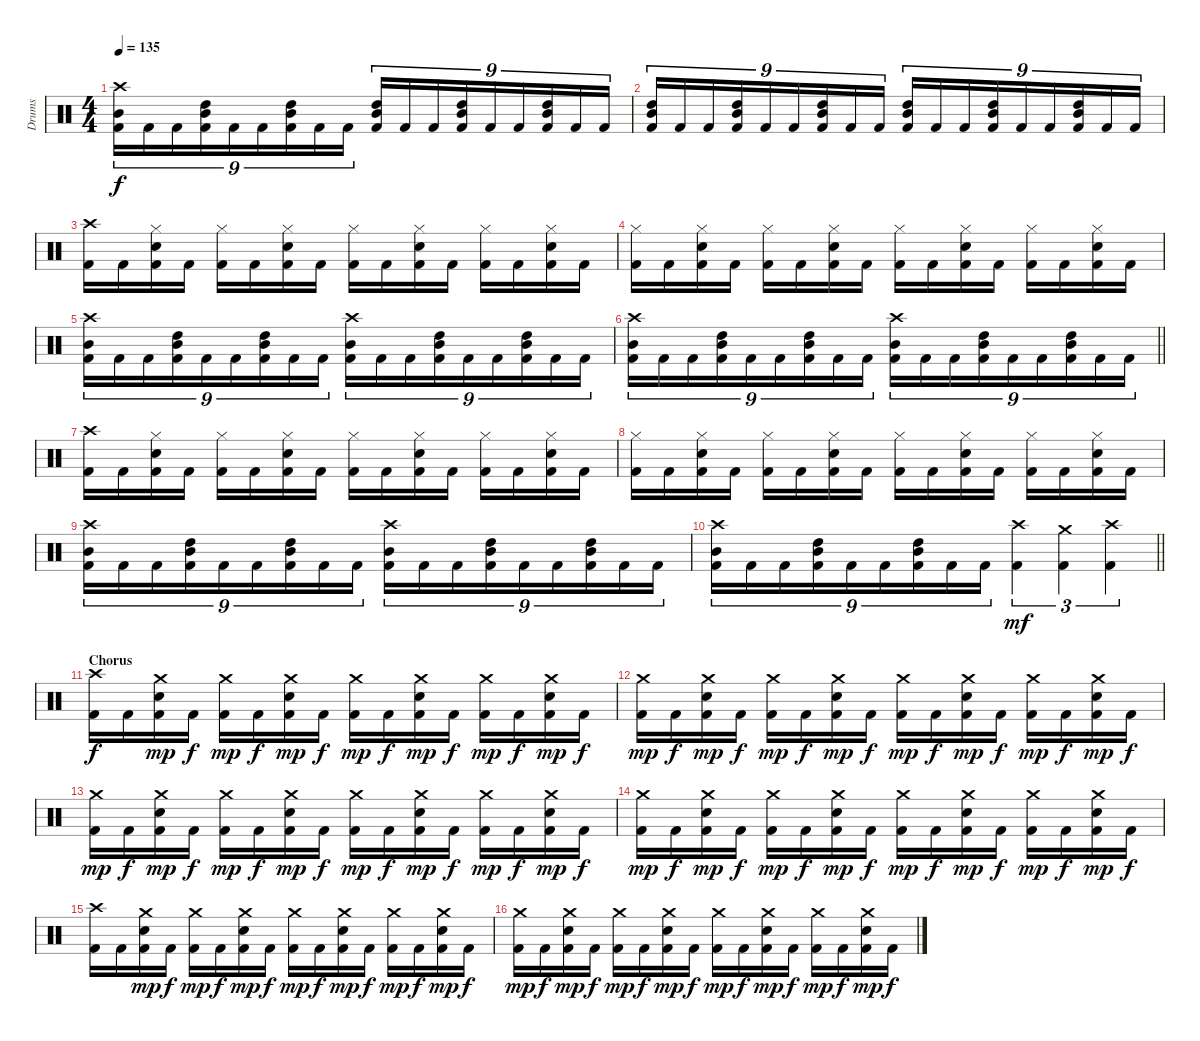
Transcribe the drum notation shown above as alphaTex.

\track ("Drums" "Drums") {instrument percussion}
\staff {score}
\articulation defaults
\ts (4 4)
\tempo 135
\clef neutral
\ks c
("Crash high (hit)" "Mid Tom (hit)" "Kick (hit) 2").16{tu (9 8) dy f} "Kick (hit) 2".16{tu (9 8)} "Kick (hit) 2".16{tu (9 8)} ("High Tom (hit)" "Mid Tom (hit)" "Kick (hit) 2").16{tu (9 8)} "Kick (hit) 2".16{tu (9 8)} "Kick (hit) 2".16{tu (9 8)} ("High Tom (hit)" "Mid Tom (hit)" "Kick (hit) 2").16{tu (9 8)} "Kick (hit) 2".16{tu (9 8)} "Kick (hit) 2".16{tu (9 8)} ("High Tom (hit)" "Mid Tom (hit)" "Kick (hit) 2").16{tu (9 8)} "Kick (hit) 2".16{tu (9 8)} "Kick (hit) 2".16{tu (9 8)} ("High Tom (hit)" "Mid Tom (hit)" "Kick (hit) 2").16{tu (9 8)} "Kick (hit) 2".16{tu (9 8)} "Kick (hit) 2".16{tu (9 8)} ("High Tom (hit)" "Mid Tom (hit)" "Kick (hit) 2").16{tu (9 8)} "Kick (hit) 2".16{tu (9 8)} "Kick (hit) 2".16{tu (9 8)} |
("High Tom (hit)" "Mid Tom (hit)" "Kick (hit) 2").16{tu (9 8)} "Kick (hit) 2".16{tu (9 8)} "Kick (hit) 2".16{tu (9 8)} ("High Tom (hit)" "Mid Tom (hit)" "Kick (hit) 2").16{tu (9 8)} "Kick (hit) 2".16{tu (9 8)} "Kick (hit) 2".16{tu (9 8)} ("High Tom (hit)" "Mid Tom (hit)" "Kick (hit) 2").16{tu (9 8)} "Kick (hit) 2".16{tu (9 8)} "Kick (hit) 2".16{tu (9 8)} ("High Tom (hit)" "Mid Tom (hit)" "Kick (hit) 2").16{tu (9 8)} "Kick (hit) 2".16{tu (9 8)} "Kick (hit) 2".16{tu (9 8)} ("High Tom (hit)" "Mid Tom (hit)" "Kick (hit) 2").16{tu (9 8)} "Kick (hit) 2".16{tu (9 8)} "Kick (hit) 2".16{tu (9 8)} ("High Tom (hit)" "Mid Tom (hit)" "Kick (hit) 2").16{tu (9 8)} "Kick (hit) 2".16{tu (9 8)} "Kick (hit) 2".16{tu (9 8)} |
("Crash high (hit)" "Kick (hit) 2").16 "Kick (hit) 2".16 ("Hi-Hat (closed)" "Snare (hit) 2" "Kick (hit) 2").16 "Kick (hit) 2".16 ("Hi-Hat (closed)" "Kick (hit) 2").16 "Kick (hit) 2".16 ("Hi-Hat (closed)" "Snare (hit) 2" "Kick (hit) 2").16 "Kick (hit) 2".16 ("Hi-Hat (closed)" "Kick (hit) 2").16 "Kick (hit) 2".16 ("Hi-Hat (closed)" "Snare (hit) 2" "Kick (hit) 2").16 "Kick (hit) 2".16 ("Hi-Hat (closed)" "Kick (hit) 2").16 "Kick (hit) 2".16 ("Hi-Hat (closed)" "Snare (hit) 2" "Kick (hit) 2").16 "Kick (hit) 2".16 |
("Hi-Hat (closed)" "Kick (hit) 2").16 "Kick (hit) 2".16 ("Hi-Hat (closed)" "Snare (hit) 2" "Kick (hit) 2").16 "Kick (hit) 2".16 ("Hi-Hat (closed)" "Kick (hit) 2").16 "Kick (hit) 2".16 ("Hi-Hat (closed)" "Snare (hit) 2" "Kick (hit) 2").16 "Kick (hit) 2".16 ("Hi-Hat (closed)" "Kick (hit) 2").16 "Kick (hit) 2".16 ("Hi-Hat (closed)" "Snare (hit) 2" "Kick (hit) 2").16 "Kick (hit) 2".16 ("Hi-Hat (closed)" "Kick (hit) 2").16 "Kick (hit) 2".16 ("Hi-Hat (closed)" "Snare (hit) 2" "Kick (hit) 2").16 "Kick (hit) 2".16 |
("Crash high (hit)" "Mid Tom (hit)" "Kick (hit) 2").16{tu (9 8)} "Kick (hit) 2".16{tu (9 8)} "Kick (hit) 2".16{tu (9 8)} ("High Tom (hit)" "Mid Tom (hit)" "Kick (hit) 2").16{tu (9 8)} "Kick (hit) 2".16{tu (9 8)} "Kick (hit) 2".16{tu (9 8)} ("High Tom (hit)" "Mid Tom (hit)" "Kick (hit) 2").16{tu (9 8)} "Kick (hit) 2".16{tu (9 8)} "Kick (hit) 2".16{tu (9 8)} ("Crash high (hit)" "Mid Tom (hit)" "Kick (hit) 2").16{tu (9 8)} "Kick (hit) 2".16{tu (9 8)} "Kick (hit) 2".16{tu (9 8)} ("High Tom (hit)" "Mid Tom (hit)" "Kick (hit) 2").16{tu (9 8)} "Kick (hit) 2".16{tu (9 8)} "Kick (hit) 2".16{tu (9 8)} ("High Tom (hit)" "Mid Tom (hit)" "Kick (hit) 2").16{tu (9 8)} "Kick (hit) 2".16{tu (9 8)} "Kick (hit) 2".16{tu (9 8)} |
\barLineRight lightlight
("Crash high (hit)" "Mid Tom (hit)" "Kick (hit) 2").16{tu (9 8)} "Kick (hit) 2".16{tu (9 8)} "Kick (hit) 2".16{tu (9 8)} ("High Tom (hit)" "Mid Tom (hit)" "Kick (hit) 2").16{tu (9 8)} "Kick (hit) 2".16{tu (9 8)} "Kick (hit) 2".16{tu (9 8)} ("High Tom (hit)" "Mid Tom (hit)" "Kick (hit) 2").16{tu (9 8)} "Kick (hit) 2".16{tu (9 8)} "Kick (hit) 2".16{tu (9 8)} ("Crash high (hit)" "Mid Tom (hit)" "Kick (hit) 2").16{tu (9 8)} "Kick (hit) 2".16{tu (9 8)} "Kick (hit) 2".16{tu (9 8)} ("High Tom (hit)" "Mid Tom (hit)" "Kick (hit) 2").16{tu (9 8)} "Kick (hit) 2".16{tu (9 8)} "Kick (hit) 2".16{tu (9 8)} ("High Tom (hit)" "Mid Tom (hit)" "Kick (hit) 2").16{tu (9 8)} "Kick (hit) 2".16{tu (9 8)} "Kick (hit) 2".16{tu (9 8)} |
("Crash high (hit)" "Kick (hit) 2").16 "Kick (hit) 2".16 ("Hi-Hat (closed)" "Snare (hit) 2" "Kick (hit) 2").16 "Kick (hit) 2".16 ("Hi-Hat (closed)" "Kick (hit) 2").16 "Kick (hit) 2".16 ("Hi-Hat (closed)" "Snare (hit) 2" "Kick (hit) 2").16 "Kick (hit) 2".16 ("Hi-Hat (closed)" "Kick (hit) 2").16 "Kick (hit) 2".16 ("Hi-Hat (closed)" "Snare (hit) 2" "Kick (hit) 2").16 "Kick (hit) 2".16 ("Hi-Hat (closed)" "Kick (hit) 2").16 "Kick (hit) 2".16 ("Hi-Hat (closed)" "Snare (hit) 2" "Kick (hit) 2").16 "Kick (hit) 2".16 |
("Hi-Hat (closed)" "Kick (hit) 2").16 "Kick (hit) 2".16 ("Hi-Hat (closed)" "Snare (hit) 2" "Kick (hit) 2").16 "Kick (hit) 2".16 ("Hi-Hat (closed)" "Kick (hit) 2").16 "Kick (hit) 2".16 ("Hi-Hat (closed)" "Snare (hit) 2" "Kick (hit) 2").16 "Kick (hit) 2".16 ("Hi-Hat (closed)" "Kick (hit) 2").16 "Kick (hit) 2".16 ("Hi-Hat (closed)" "Snare (hit) 2" "Kick (hit) 2").16 "Kick (hit) 2".16 ("Hi-Hat (closed)" "Kick (hit) 2").16 "Kick (hit) 2".16 ("Hi-Hat (closed)" "Snare (hit) 2" "Kick (hit) 2").16 "Kick (hit) 2".16 |
("Crash high (hit)" "Mid Tom (hit)" "Kick (hit) 2").16{tu (9 8)} "Kick (hit) 2".16{tu (9 8)} "Kick (hit) 2".16{tu (9 8)} ("High Tom (hit)" "Mid Tom (hit)" "Kick (hit) 2").16{tu (9 8)} "Kick (hit) 2".16{tu (9 8)} "Kick (hit) 2".16{tu (9 8)} ("High Tom (hit)" "Mid Tom (hit)" "Kick (hit) 2").16{tu (9 8)} "Kick (hit) 2".16{tu (9 8)} "Kick (hit) 2".16{tu (9 8)} ("Crash high (hit)" "Mid Tom (hit)" "Kick (hit) 2").16{tu (9 8)} "Kick (hit) 2".16{tu (9 8)} "Kick (hit) 2".16{tu (9 8)} ("High Tom (hit)" "Mid Tom (hit)" "Kick (hit) 2").16{tu (9 8)} "Kick (hit) 2".16{tu (9 8)} "Kick (hit) 2".16{tu (9 8)} ("High Tom (hit)" "Mid Tom (hit)" "Kick (hit) 2").16{tu (9 8)} "Kick (hit) 2".16{tu (9 8)} "Kick (hit) 2".16{tu (9 8)} |
\barLineRight lightlight
("Crash high (hit)" "Mid Tom (hit)" "Kick (hit) 2").16{tu (9 8)} "Kick (hit) 2".16{tu (9 8)} "Kick (hit) 2".16{tu (9 8)} ("High Tom (hit)" "Mid Tom (hit)" "Kick (hit) 2").16{tu (9 8)} "Kick (hit) 2".16{tu (9 8)} "Kick (hit) 2".16{tu (9 8)} ("High Tom (hit)" "Mid Tom (hit)" "Kick (hit) 2").16{tu (9 8)} "Kick (hit) 2".16{tu (9 8)} "Kick (hit) 2".16{tu (9 8)} ("Crash high (hit)" "Kick (hit) 2").4{tu (3 2) dy mf} ("Crash medium (hit)" "Kick (hit) 2").4{tu (3 2)} ("Crash high (hit)" "Kick (hit) 2").4{tu (3 2)} |
\section ("" "Chorus")
("Crash high (hit)" "Kick (hit) 2").16{dy f} "Kick (hit) 2".16 ("Crash medium (hit)" "Snare (hit) 2" "Kick (hit) 2").16{dy mp} "Kick (hit) 2".16{dy f} ("Crash medium (hit)" "Kick (hit) 2").16{dy mp} "Kick (hit) 2".16{dy f} ("Crash medium (hit)" "Snare (hit) 2" "Kick (hit) 2").16{dy mp} "Kick (hit) 2".16{dy f} ("Crash medium (hit)" "Kick (hit) 2").16{dy mp} "Kick (hit) 2".16{dy f} ("Crash medium (hit)" "Snare (hit) 2" "Kick (hit) 2").16{dy mp} "Kick (hit) 2".16{dy f} ("Crash medium (hit)" "Kick (hit) 2").16{dy mp} "Kick (hit) 2".16{dy f} ("Crash medium (hit)" "Snare (hit) 2" "Kick (hit) 2").16{dy mp} "Kick (hit) 2".16{dy f} |
("Crash medium (hit)" "Kick (hit) 2").16{dy mp} "Kick (hit) 2".16{dy f} ("Crash medium (hit)" "Snare (hit) 2" "Kick (hit) 2").16{dy mp} "Kick (hit) 2".16{dy f} ("Crash medium (hit)" "Kick (hit) 2").16{dy mp} "Kick (hit) 2".16{dy f} ("Crash medium (hit)" "Snare (hit) 2" "Kick (hit) 2").16{dy mp} "Kick (hit) 2".16{dy f} ("Crash medium (hit)" "Kick (hit) 2").16{dy mp} "Kick (hit) 2".16{dy f} ("Crash medium (hit)" "Snare (hit) 2" "Kick (hit) 2").16{dy mp} "Kick (hit) 2".16{dy f} ("Crash medium (hit)" "Kick (hit) 2").16{dy mp} "Kick (hit) 2".16{dy f} ("Crash medium (hit)" "Snare (hit) 2" "Kick (hit) 2").16{dy mp} "Kick (hit) 2".16{dy f} |
("Crash medium (hit)" "Kick (hit) 2").16{dy mp} "Kick (hit) 2".16{dy f} ("Crash medium (hit)" "Snare (hit) 2" "Kick (hit) 2").16{dy mp} "Kick (hit) 2".16{dy f} ("Crash medium (hit)" "Kick (hit) 2").16{dy mp} "Kick (hit) 2".16{dy f} ("Crash medium (hit)" "Snare (hit) 2" "Kick (hit) 2").16{dy mp} "Kick (hit) 2".16{dy f} ("Crash medium (hit)" "Kick (hit) 2").16{dy mp} "Kick (hit) 2".16{dy f} ("Crash medium (hit)" "Snare (hit) 2" "Kick (hit) 2").16{dy mp} "Kick (hit) 2".16{dy f} ("Crash medium (hit)" "Kick (hit) 2").16{dy mp} "Kick (hit) 2".16{dy f} ("Crash medium (hit)" "Snare (hit) 2" "Kick (hit) 2").16{dy mp} "Kick (hit) 2".16{dy f} |
("Crash medium (hit)" "Kick (hit) 2").16{dy mp} "Kick (hit) 2".16{dy f} ("Crash medium (hit)" "Snare (hit) 2" "Kick (hit) 2").16{dy mp} "Kick (hit) 2".16{dy f} ("Crash medium (hit)" "Kick (hit) 2").16{dy mp} "Kick (hit) 2".16{dy f} ("Crash medium (hit)" "Snare (hit) 2" "Kick (hit) 2").16{dy mp} "Kick (hit) 2".16{dy f} ("Crash medium (hit)" "Kick (hit) 2").16{dy mp} "Kick (hit) 2".16{dy f} ("Crash medium (hit)" "Snare (hit) 2" "Kick (hit) 2").16{dy mp} "Kick (hit) 2".16{dy f} ("Crash medium (hit)" "Kick (hit) 2").16{dy mp} "Kick (hit) 2".16{dy f} ("Crash medium (hit)" "Snare (hit) 2" "Kick (hit) 2").16{dy mp} "Kick (hit) 2".16{dy f} |
("Crash high (hit)" "Kick (hit) 2").16 "Kick (hit) 2".16 ("Crash medium (hit)" "Snare (hit) 2" "Kick (hit) 2").16{dy mp} "Kick (hit) 2".16{dy f} ("Crash medium (hit)" "Kick (hit) 2").16{dy mp} "Kick (hit) 2".16{dy f} ("Crash medium (hit)" "Snare (hit) 2" "Kick (hit) 2").16{dy mp} "Kick (hit) 2".16{dy f} ("Crash medium (hit)" "Kick (hit) 2").16{dy mp} "Kick (hit) 2".16{dy f} ("Crash medium (hit)" "Snare (hit) 2" "Kick (hit) 2").16{dy mp} "Kick (hit) 2".16{dy f} ("Crash medium (hit)" "Kick (hit) 2").16{dy mp} "Kick (hit) 2".16{dy f} ("Crash medium (hit)" "Snare (hit) 2" "Kick (hit) 2").16{dy mp} "Kick (hit) 2".16{dy f} |
("Crash medium (hit)" "Kick (hit) 2").16{dy mp} "Kick (hit) 2".16{dy f} ("Crash medium (hit)" "Snare (hit) 2" "Kick (hit) 2").16{dy mp} "Kick (hit) 2".16{dy f} ("Crash medium (hit)" "Kick (hit) 2").16{dy mp} "Kick (hit) 2".16{dy f} ("Crash medium (hit)" "Snare (hit) 2" "Kick (hit) 2").16{dy mp} "Kick (hit) 2".16{dy f} ("Crash medium (hit)" "Kick (hit) 2").16{dy mp} "Kick (hit) 2".16{dy f} ("Crash medium (hit)" "Snare (hit) 2" "Kick (hit) 2").16{dy mp} "Kick (hit) 2".16{dy f} ("Crash medium (hit)" "Kick (hit) 2").16{dy mp} "Kick (hit) 2".16{dy f} ("Crash medium (hit)" "Snare (hit) 2" "Kick (hit) 2").16{dy mp} "Kick (hit) 2".16{dy f}
